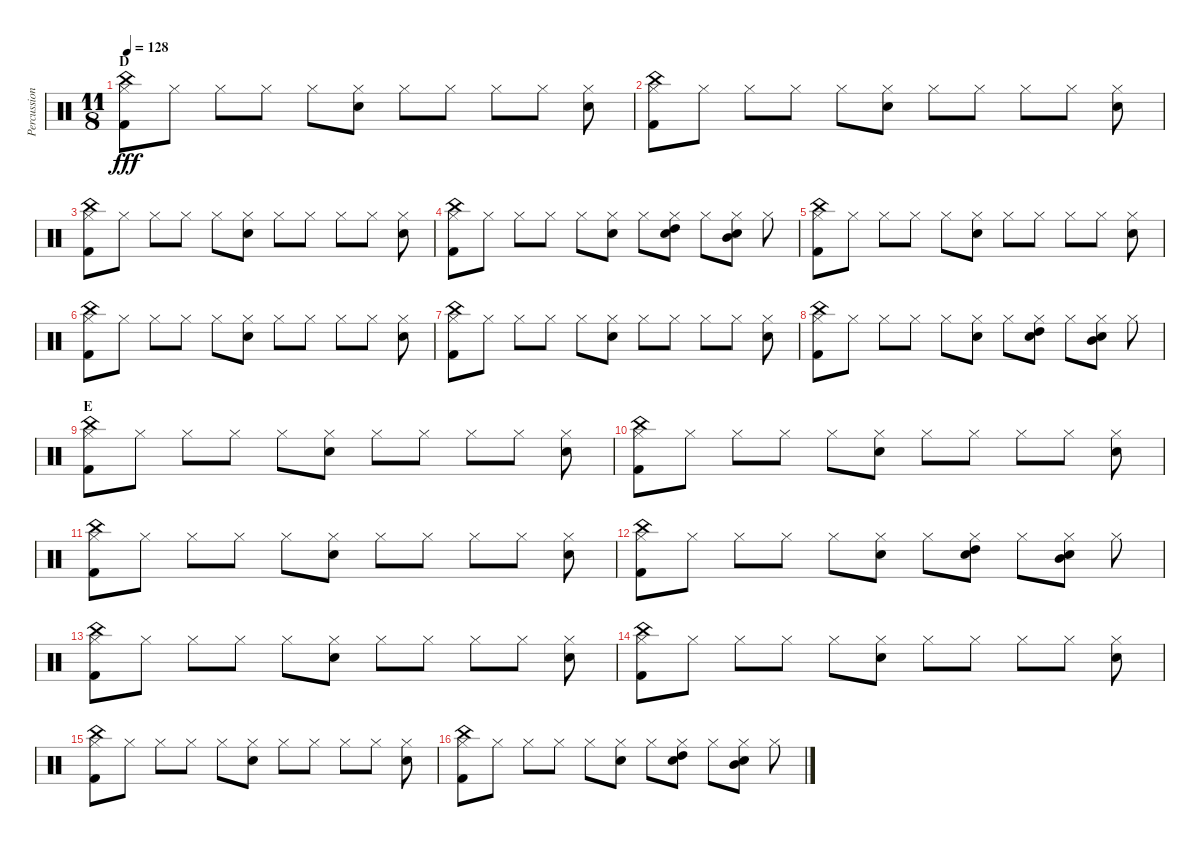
\track ("Percussions" "Percussion") {instrument percussion}
\staff {score}
\articulation defaults
\ts (11 8)
\section ("" "D")
\tempo 128
\clef neutral
\ks c
("Hi-Hat (closed)" "China (hit)" "Kick (hit) 2").8{dy fff} "Hi-Hat (closed)".8 "Hi-Hat (closed)".8 "Hi-Hat (closed)".8 "Hi-Hat (closed)".8 ("Hi-Hat (closed)" "Electric Snare (hit)").8 "Hi-Hat (closed)".8 "Hi-Hat (closed)".8 "Hi-Hat (closed)".8 "Hi-Hat (closed)".8 ("Hi-Hat (closed)" "Electric Snare (hit)").8 |
("Hi-Hat (closed)" "China (hit)" "Kick (hit) 2").8 "Hi-Hat (closed)".8 "Hi-Hat (closed)".8 "Hi-Hat (closed)".8 "Hi-Hat (closed)".8 ("Hi-Hat (closed)" "Electric Snare (hit)").8 "Hi-Hat (closed)".8 "Hi-Hat (closed)".8 "Hi-Hat (closed)".8 "Hi-Hat (closed)".8 ("Hi-Hat (closed)" "Electric Snare (hit)").8 |
("Hi-Hat (closed)" "China (hit)" "Kick (hit) 2").8 "Hi-Hat (closed)".8 "Hi-Hat (closed)".8 "Hi-Hat (closed)".8 "Hi-Hat (closed)".8 ("Hi-Hat (closed)" "Electric Snare (hit)").8 "Hi-Hat (closed)".8 "Hi-Hat (closed)".8 "Hi-Hat (closed)".8 "Hi-Hat (closed)".8 ("Hi-Hat (closed)" "Electric Snare (hit)").8 |
("Hi-Hat (closed)" "China (hit)" "Kick (hit) 2").8 "Hi-Hat (closed)".8 "Hi-Hat (closed)".8 "Hi-Hat (closed)".8 "Hi-Hat (closed)".8 ("Hi-Hat (closed)" "Electric Snare (hit)").8 "Hi-Hat (closed)".8 ("Hi-Hat (closed)" "High Tom (hit)" "Electric Snare (hit)").8 "Hi-Hat (closed)".8 ("Hi-Hat (closed)" "Mid Tom (hit)" "Electric Snare (hit)").8 "Hi-Hat (closed)".8 |
("Hi-Hat (closed)" "China (hit)" "Kick (hit) 2").8 "Hi-Hat (closed)".8 "Hi-Hat (closed)".8 "Hi-Hat (closed)".8 "Hi-Hat (closed)".8 ("Hi-Hat (closed)" "Electric Snare (hit)").8 "Hi-Hat (closed)".8 "Hi-Hat (closed)".8 "Hi-Hat (closed)".8 "Hi-Hat (closed)".8 ("Hi-Hat (closed)" "Electric Snare (hit)").8 |
("Hi-Hat (closed)" "China (hit)" "Kick (hit) 2").8 "Hi-Hat (closed)".8 "Hi-Hat (closed)".8 "Hi-Hat (closed)".8 "Hi-Hat (closed)".8 ("Hi-Hat (closed)" "Electric Snare (hit)").8 "Hi-Hat (closed)".8 "Hi-Hat (closed)".8 "Hi-Hat (closed)".8 "Hi-Hat (closed)".8 ("Hi-Hat (closed)" "Electric Snare (hit)").8 |
("Hi-Hat (closed)" "China (hit)" "Kick (hit) 2").8 "Hi-Hat (closed)".8 "Hi-Hat (closed)".8 "Hi-Hat (closed)".8 "Hi-Hat (closed)".8 ("Hi-Hat (closed)" "Electric Snare (hit)").8 "Hi-Hat (closed)".8 "Hi-Hat (closed)".8 "Hi-Hat (closed)".8 "Hi-Hat (closed)".8 ("Hi-Hat (closed)" "Electric Snare (hit)").8 |
("Hi-Hat (closed)" "China (hit)" "Kick (hit) 2").8 "Hi-Hat (closed)".8 "Hi-Hat (closed)".8 "Hi-Hat (closed)".8 "Hi-Hat (closed)".8 ("Hi-Hat (closed)" "Electric Snare (hit)").8 "Hi-Hat (closed)".8 ("Hi-Hat (closed)" "High Tom (hit)" "Electric Snare (hit)").8 "Hi-Hat (closed)".8 ("Hi-Hat (closed)" "Mid Tom (hit)" "Electric Snare (hit)").8 "Hi-Hat (closed)".8 |
\section ("" "E")
("Hi-Hat (closed)" "China (hit)" "Kick (hit) 2").8 "Hi-Hat (closed)".8 "Hi-Hat (closed)".8 "Hi-Hat (closed)".8 "Hi-Hat (closed)".8 ("Hi-Hat (closed)" "Electric Snare (hit)").8 "Hi-Hat (closed)".8 "Hi-Hat (closed)".8 "Hi-Hat (closed)".8 "Hi-Hat (closed)".8 ("Hi-Hat (closed)" "Electric Snare (hit)").8 |
("Hi-Hat (closed)" "China (hit)" "Kick (hit) 2").8 "Hi-Hat (closed)".8 "Hi-Hat (closed)".8 "Hi-Hat (closed)".8 "Hi-Hat (closed)".8 ("Hi-Hat (closed)" "Electric Snare (hit)").8 "Hi-Hat (closed)".8 "Hi-Hat (closed)".8 "Hi-Hat (closed)".8 "Hi-Hat (closed)".8 ("Hi-Hat (closed)" "Electric Snare (hit)").8 |
("Hi-Hat (closed)" "China (hit)" "Kick (hit) 2").8 "Hi-Hat (closed)".8 "Hi-Hat (closed)".8 "Hi-Hat (closed)".8 "Hi-Hat (closed)".8 ("Hi-Hat (closed)" "Electric Snare (hit)").8 "Hi-Hat (closed)".8 "Hi-Hat (closed)".8 "Hi-Hat (closed)".8 "Hi-Hat (closed)".8 ("Hi-Hat (closed)" "Electric Snare (hit)").8 |
("Hi-Hat (closed)" "China (hit)" "Kick (hit) 2").8 "Hi-Hat (closed)".8 "Hi-Hat (closed)".8 "Hi-Hat (closed)".8 "Hi-Hat (closed)".8 ("Hi-Hat (closed)" "Electric Snare (hit)").8 "Hi-Hat (closed)".8 ("Hi-Hat (closed)" "High Tom (hit)" "Electric Snare (hit)").8 "Hi-Hat (closed)".8 ("Hi-Hat (closed)" "Mid Tom (hit)" "Electric Snare (hit)").8 "Hi-Hat (closed)".8 |
("Hi-Hat (closed)" "China (hit)" "Kick (hit) 2").8 "Hi-Hat (closed)".8 "Hi-Hat (closed)".8 "Hi-Hat (closed)".8 "Hi-Hat (closed)".8 ("Hi-Hat (closed)" "Electric Snare (hit)").8 "Hi-Hat (closed)".8 "Hi-Hat (closed)".8 "Hi-Hat (closed)".8 "Hi-Hat (closed)".8 ("Hi-Hat (closed)" "Electric Snare (hit)").8 |
("Hi-Hat (closed)" "China (hit)" "Kick (hit) 2").8 "Hi-Hat (closed)".8 "Hi-Hat (closed)".8 "Hi-Hat (closed)".8 "Hi-Hat (closed)".8 ("Hi-Hat (closed)" "Electric Snare (hit)").8 "Hi-Hat (closed)".8 "Hi-Hat (closed)".8 "Hi-Hat (closed)".8 "Hi-Hat (closed)".8 ("Hi-Hat (closed)" "Electric Snare (hit)").8 |
("Hi-Hat (closed)" "China (hit)" "Kick (hit) 2").8 "Hi-Hat (closed)".8 "Hi-Hat (closed)".8 "Hi-Hat (closed)".8 "Hi-Hat (closed)".8 ("Hi-Hat (closed)" "Electric Snare (hit)").8 "Hi-Hat (closed)".8 "Hi-Hat (closed)".8 "Hi-Hat (closed)".8 "Hi-Hat (closed)".8 ("Hi-Hat (closed)" "Electric Snare (hit)").8 |
("Hi-Hat (closed)" "China (hit)" "Kick (hit) 2").8 "Hi-Hat (closed)".8 "Hi-Hat (closed)".8 "Hi-Hat (closed)".8 "Hi-Hat (closed)".8 ("Hi-Hat (closed)" "Electric Snare (hit)").8 "Hi-Hat (closed)".8 ("Hi-Hat (closed)" "High Tom (hit)" "Electric Snare (hit)").8 "Hi-Hat (closed)".8 ("Hi-Hat (closed)" "Mid Tom (hit)" "Electric Snare (hit)").8 "Hi-Hat (closed)".8
